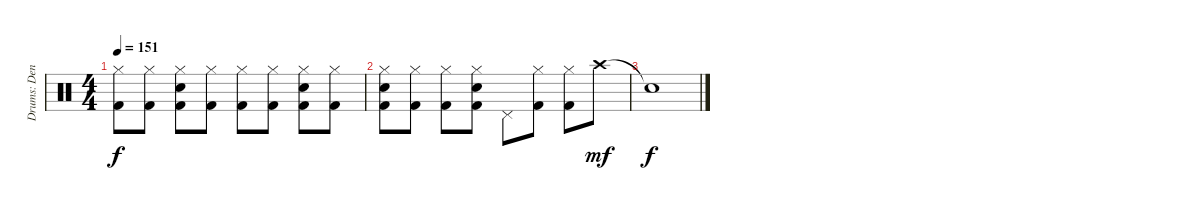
\track ("Drums: Denny Carmassi" "Drums: Den") {instrument percussion}
\staff {score}
\articulation defaults
\ts (4 4)
\tempo 151
\clef neutral
\ks c
("Hi-Hat (closed)" "Kick (hit) 2").8{dy f} ("Hi-Hat (closed)" "Kick (hit) 2").8 ("Hi-Hat (closed)" "Snare (hit) 2" "Kick (hit) 2").8 ("Hi-Hat (closed)" "Kick (hit) 2").8 ("Hi-Hat (closed)" "Kick (hit) 2").8 ("Hi-Hat (closed)" "Kick (hit) 2").8 ("Hi-Hat (closed)" "Snare (hit) 2" "Kick (hit) 2").8 ("Hi-Hat (closed)" "Kick (hit) 2").8 |
("Hi-Hat (closed)" "Snare (hit) 2" "Kick (hit) 2").8 ("Hi-Hat (closed)" "Kick (hit) 2").8 ("Hi-Hat (closed)" "Kick (hit) 2").8 ("Hi-Hat (closed)" "Snare (hit) 2" "Kick (hit) 2").8 "Pedal Hi-Hat (hit)".8 ("Hi-Hat (closed)" "Kick (hit) 2").8 ("Hi-Hat (closed)" "Kick (hit) 2").8 "Crash high (hit)".8{dy mf} |
"Snare (hit)"{t}.1{dy f}
